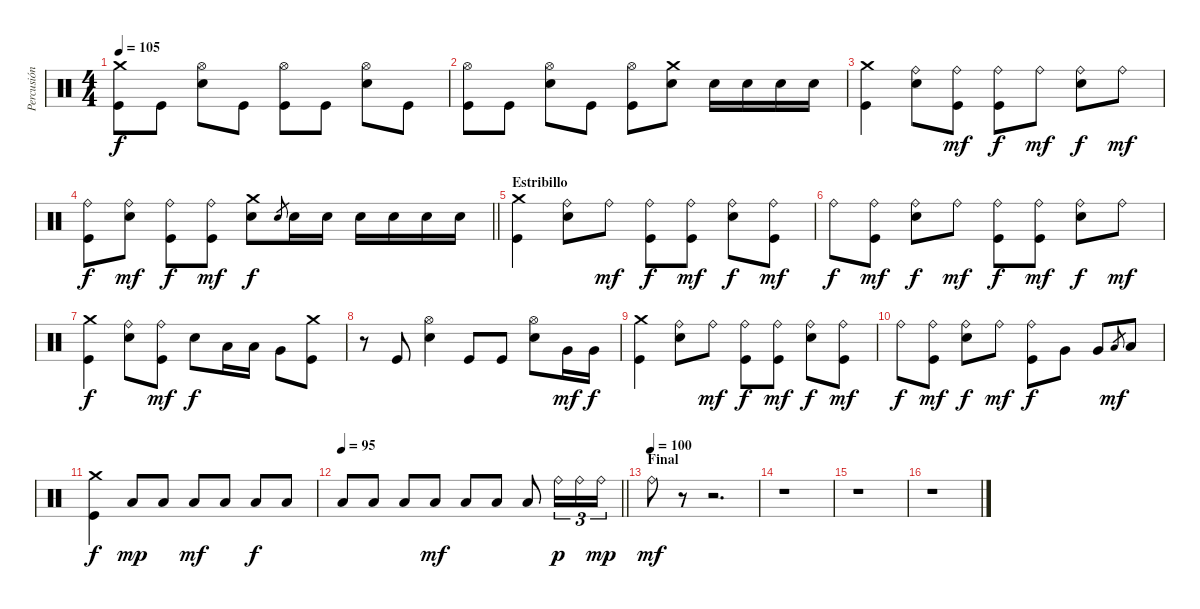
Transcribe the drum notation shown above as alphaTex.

\track ("Percusión" "Percusión") {instrument percussion}
\staff {score}
\articulation defaults
\ts (4 4)
\tempo 105
\clef neutral
\ks c
("Crash medium (hit)" "Kick (hit)").8{dy f} "Kick (hit)".8 ("Hi-Hat (open)" "Snare (hit) 2").8 "Kick (hit)".8 ("Hi-Hat (open)" "Kick (hit)").8 "Kick (hit)".8 ("Hi-Hat (open)" "Snare (hit) 2").8 "Kick (hit)".8 |
("Hi-Hat (open)" "Kick (hit)").8 "Kick (hit)".8 ("Hi-Hat (open)" "Snare (hit) 2").8 "Kick (hit)".8 ("Hi-Hat (open)" "Kick (hit)").8 ("Crash medium (hit)" "Snare (hit) 2").8 "Snare (hit) 2".16 "Snare (hit) 2".16 "Snare (hit) 2".16 "Snare (hit) 2".16 |
("Crash medium (hit)" "Kick (hit)").4 ("Ride (bell)" "Snare (hit) 2").8 ("Ride (bell)" "Kick (hit)").8{dy mf} ("Ride (bell)" "Kick (hit)").8{dy f} "Ride (bell)".8{dy mf} ("Ride (bell)" "Snare (hit) 2").8{dy f} "Ride (bell)".8{dy mf} |
\barLineRight lightlight
("Ride (bell)" "Kick (hit)").8{dy f} ("Ride (bell)" "Snare (hit) 2").8{dy mf} ("Ride (bell)" "Kick (hit)").8{dy f} ("Ride (bell)" "Kick (hit)").8{dy mf} ("Crash medium (hit)" "Snare (hit) 2").8{dy f} "Snare (hit) 2".8{gr} "Snare (hit) 2".16 "Snare (hit) 2".16 "Snare (hit) 2".16 "Snare (hit) 2".16 "Snare (hit) 2".16 "Snare (hit) 2".16 |
\section ("" "Estribillo")
("Crash medium (hit)" "Kick (hit)").4 ("Ride (bell)" "Snare (hit) 2").8 "Ride (bell)".8{dy mf} ("Ride (bell)" "Kick (hit)").8{dy f} ("Ride (bell)" "Kick (hit)").8{dy mf} ("Ride (bell)" "Snare (hit) 2").8{dy f} ("Ride (bell)" "Kick (hit)").8{dy mf} |
"Ride (bell)".8{dy f} ("Ride (bell)" "Kick (hit)").8{dy mf} ("Ride (bell)" "Snare (hit) 2").8{dy f} "Ride (bell)".8{dy mf} ("Ride (bell)" "Kick (hit)").8{dy f} ("Ride (bell)" "Kick (hit)").8{dy mf} ("Ride (bell)" "Snare (hit) 2").8{dy f} "Ride (bell)".8{dy mf} |
("Crash medium (hit)" "Kick (hit)").4{dy f} ("Ride (bell)" "Snare (hit) 2").8 ("Ride (bell)" "Kick (hit)").8{dy mf} "Snare (hit) 2".8{dy f} "Low Tom (hit)".16 "Low Tom (hit)".16 "Very Low Tom (hit)".8 ("Crash medium (hit)" "Kick (hit)").8 |
r.8 "Kick (hit)".8 ("Hi-Hat (open)" "Snare (hit) 2").4 "Kick (hit)".8 "Kick (hit)".8 ("Hi-Hat (open)" "Snare (hit) 2").8 "Very Low Tom (hit)".16{dy mf} "Very Low Tom (hit)".16{dy f} |
("Crash medium (hit)" "Kick (hit)").4 ("Ride (bell)" "Snare (hit) 2").8 "Ride (bell)".8{dy mf} ("Ride (bell)" "Kick (hit)").8{dy f} ("Ride (bell)" "Kick (hit)").8{dy mf} ("Ride (bell)" "Snare (hit) 2").8{dy f} ("Ride (bell)" "Kick (hit)").8{dy mf} |
"Ride (bell)".8{dy f} ("Ride (bell)" "Kick (hit)").8{dy mf} ("Ride (bell)" "Snare (hit) 2").8{dy f} "Ride (bell)".8{dy mf} ("Ride (bell)" "Kick (hit)").8{dy f} "Very Low Tom (hit)".8 "Very Low Tom (hit)".8 "Low Floor Tom (hit)".8{gr dy mf} "Low Floor Tom (hit)".8 |
("Crash medium (hit)" "Kick (hit)").4{dy f} "Low Floor Tom (hit)".8{dy mp} "Low Floor Tom (hit)".8 "Low Floor Tom (hit)".8{dy mf} "Low Floor Tom (hit)".8 "Low Floor Tom (hit)".8{dy f} "Low Floor Tom (hit)".8 |
\tempo 95
\barLineRight lightlight "Low Floor Tom (hit)".8 "Low Floor Tom (hit)".8 "Low Floor Tom (hit)".8 "Low Floor Tom (hit)".8{dy mf} "Low Floor Tom (hit)".8 "Low Floor Tom (hit)".8 "Low Floor Tom (hit)".8 "Ride (bell)".16{tu (3 2) dy p} "Ride (bell)".16{tu (3 2)} "Ride (bell)".16{tu (3 2) dy mp}
|
\section ("" "Final")
\tempo (100)
"Ride (bell)".8{dy mf} r.8 r.2{d} |
r.1 |
r.1 |
r.1
